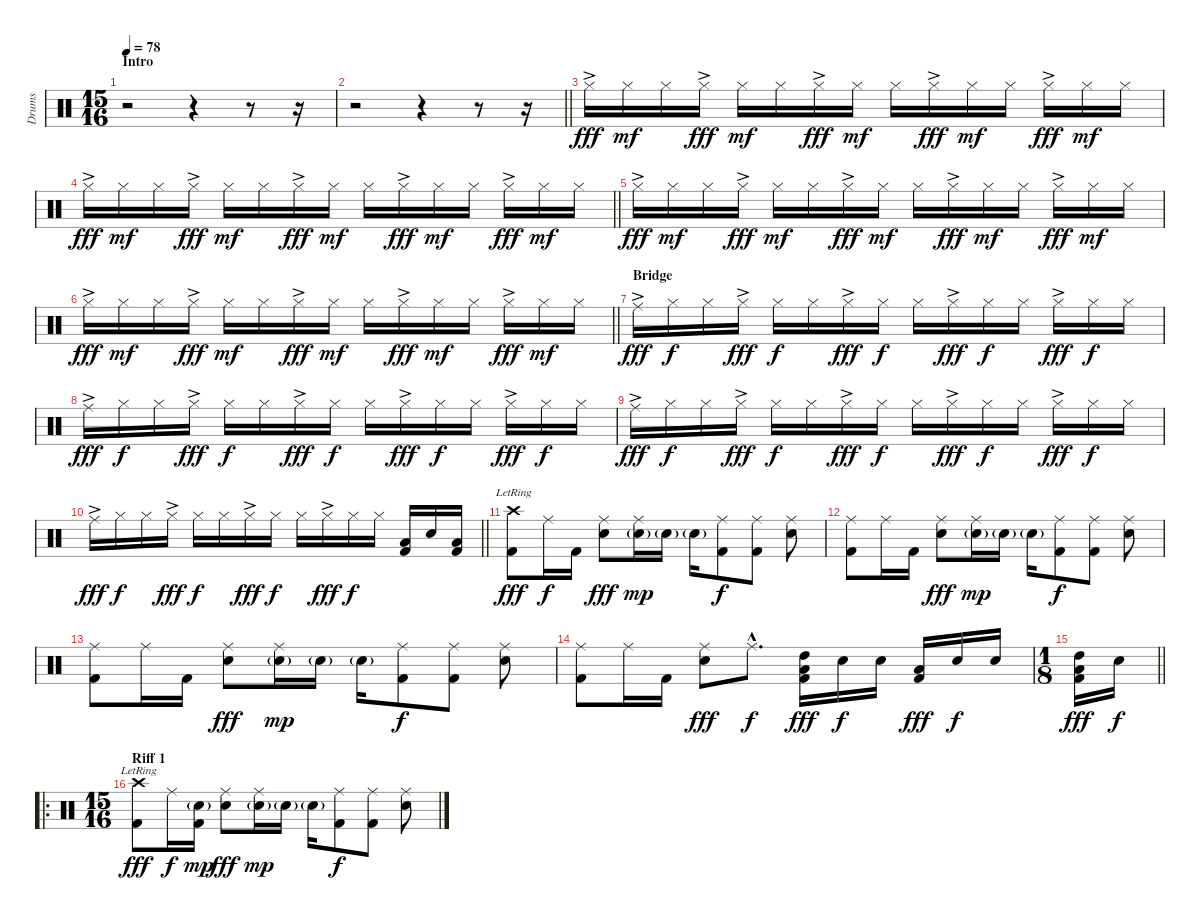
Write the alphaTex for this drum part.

\track ("Drums" "Drums") {instrument percussion}
\staff {score}
\articulation defaults
\ts (15 16)
\section ("" "Intro")
\tempo 78
\clef neutral
\ks c
r.2{dy fff} r.4 r.8 r.16 |
\barLineRight lightlight
r.2 r.4 r.8 r.16 |
"Hi-Hat (closed)"{ac}.16 "Hi-Hat (closed)".16{dy mf} "Hi-Hat (closed)".16 "Hi-Hat (closed)"{ac}.16{dy fff} "Hi-Hat (closed)".16{dy mf} "Hi-Hat (closed)".16 "Hi-Hat (closed)"{ac}.16{dy fff} "Hi-Hat (closed)".16{dy mf} "Hi-Hat (closed)".16 "Hi-Hat (closed)"{ac}.16{dy fff} "Hi-Hat (closed)".16{dy mf} "Hi-Hat (closed)".16 "Hi-Hat (closed)"{ac}.16{dy fff} "Hi-Hat (closed)".16{dy mf} "Hi-Hat (closed)".16 |
\barLineRight lightlight "Hi-Hat (closed)"{ac}.16{dy fff} "Hi-Hat (closed)".16{dy mf} "Hi-Hat (closed)".16 "Hi-Hat (closed)"{ac}.16{dy fff} "Hi-Hat (closed)".16{dy mf} "Hi-Hat (closed)".16 "Hi-Hat (closed)"{ac}.16{dy fff} "Hi-Hat (closed)".16{dy mf} "Hi-Hat (closed)".16 "Hi-Hat (closed)"{ac}.16{dy fff} "Hi-Hat (closed)".16{dy mf} "Hi-Hat (closed)".16 "Hi-Hat (closed)"{ac}.16{dy fff} "Hi-Hat (closed)".16{dy mf} "Hi-Hat (closed)".16
|
"Hi-Hat (closed)"{ac}.16{dy fff} "Hi-Hat (closed)".16{dy mf} "Hi-Hat (closed)".16 "Hi-Hat (closed)"{ac}.16{dy fff} "Hi-Hat (closed)".16{dy mf} "Hi-Hat (closed)".16 "Hi-Hat (closed)"{ac}.16{dy fff} "Hi-Hat (closed)".16{dy mf} "Hi-Hat (closed)".16 "Hi-Hat (closed)"{ac}.16{dy fff} "Hi-Hat (closed)".16{dy mf} "Hi-Hat (closed)".16 "Hi-Hat (closed)"{ac}.16{dy fff} "Hi-Hat (closed)".16{dy mf} "Hi-Hat (closed)".16 |
\barLineRight lightlight "Hi-Hat (closed)"{ac}.16{dy fff} "Hi-Hat (closed)".16{dy mf} "Hi-Hat (closed)".16 "Hi-Hat (closed)"{ac}.16{dy fff} "Hi-Hat (closed)".16{dy mf} "Hi-Hat (closed)".16 "Hi-Hat (closed)"{ac}.16{dy fff} "Hi-Hat (closed)".16{dy mf} "Hi-Hat (closed)".16 "Hi-Hat (closed)"{ac}.16{dy fff} "Hi-Hat (closed)".16{dy mf} "Hi-Hat (closed)".16 "Hi-Hat (closed)"{ac}.16{dy fff} "Hi-Hat (closed)".16{dy mf} "Hi-Hat (closed)".16
|
\section ("" "Bridge")
"Ride (middle)"{ac}.16{dy fff} "Hi-Hat (closed)".16{dy f} "Hi-Hat (closed)".16 "Hi-Hat (closed)"{ac}.16{dy fff} "Hi-Hat (closed)".16{dy f} "Hi-Hat (closed)".16 "Hi-Hat (closed)"{ac}.16{dy fff} "Hi-Hat (closed)".16{dy f} "Hi-Hat (closed)".16 "Hi-Hat (closed)"{ac}.16{dy fff} "Hi-Hat (closed)".16{dy f} "Hi-Hat (closed)".16 "Hi-Hat (closed)"{ac}.16{dy fff} "Hi-Hat (closed)".16{dy f} "Hi-Hat (closed)".16 |
"Ride (middle)"{ac}.16{dy fff} "Hi-Hat (closed)".16{dy f} "Hi-Hat (closed)".16 "Hi-Hat (closed)"{ac}.16{dy fff} "Hi-Hat (closed)".16{dy f} "Hi-Hat (closed)".16 "Hi-Hat (closed)"{ac}.16{dy fff} "Hi-Hat (closed)".16{dy f} "Hi-Hat (closed)".16 "Hi-Hat (closed)"{ac}.16{dy fff} "Hi-Hat (closed)".16{dy f} "Hi-Hat (closed)".16 "Hi-Hat (closed)"{ac}.16{dy fff} "Hi-Hat (closed)".16{dy f} "Hi-Hat (closed)".16 |
"Ride (middle)"{ac}.16{dy fff} "Hi-Hat (closed)".16{dy f} "Hi-Hat (closed)".16 "Hi-Hat (closed)"{ac}.16{dy fff} "Hi-Hat (closed)".16{dy f} "Hi-Hat (closed)".16 "Hi-Hat (closed)"{ac}.16{dy fff} "Hi-Hat (closed)".16{dy f} "Hi-Hat (closed)".16 "Hi-Hat (closed)"{ac}.16{dy fff} "Hi-Hat (closed)".16{dy f} "Hi-Hat (closed)".16 "Hi-Hat (closed)"{ac}.16{dy fff} "Hi-Hat (closed)".16{dy f} "Hi-Hat (closed)".16 |
\barLineRight lightlight "Ride (middle)"{ac}.16{dy fff} "Hi-Hat (closed)".16{dy f} "Hi-Hat (closed)".16 "Hi-Hat (closed)"{ac}.16{dy fff} "Hi-Hat (closed)".16{dy f} "Hi-Hat (closed)".16 "Hi-Hat (closed)"{ac}.16{dy fff} "Hi-Hat (closed)".16{dy f} "Hi-Hat (closed)".16 "Hi-Hat (closed)"{ac}.16{dy fff} "Hi-Hat (closed)".16{dy f} "Hi-Hat (closed)".16
("Low Tom (hit)" "Kick (hit) 2").16{volume 16} "Snare (hit) 2".16 ("Low Tom (hit)" "Kick (hit) 2").16 |
("Crash high (hit)"{lr} "Kick (hit) 2").8{dy fff} "Ride (middle)".16{dy f} "Kick (hit) 2".16 ("Ride (middle)" "Snare (hit) 2").8{dy fff} ("Ride (middle)" "Snare (hit) 2"{g}).16{dy mp} "Snare (hit) 2"{g}.16 "Snare (hit) 2"{g}.16 ("Ride (middle)" "Kick (hit) 2").8{dy f} ("Ride (middle)" "Kick (hit) 2").8 ("Ride (middle)" "Snare (hit) 2").8 |
("Ride (middle)" "Kick (hit) 2").8 "Ride (middle)".16 "Kick (hit) 2".16 ("Ride (middle)" "Snare (hit) 2").8{dy fff} ("Ride (middle)" "Snare (hit) 2"{g}).16{dy mp} "Snare (hit) 2"{g}.16 "Snare (hit) 2"{g}.16 ("Ride (middle)" "Kick (hit) 2").8{dy f} ("Ride (middle)" "Kick (hit) 2").8 ("Ride (middle)" "Snare (hit) 2").8 |
("Ride (middle)" "Kick (hit) 2").8 "Ride (middle)".16 "Kick (hit) 2".16 ("Ride (middle)" "Snare (hit) 2").8{dy fff} ("Ride (middle)" "Snare (hit) 2"{g}).16{dy mp} "Snare (hit) 2"{g}.16 "Snare (hit) 2"{g}.16 ("Ride (middle)" "Kick (hit) 2").8{dy f} ("Ride (middle)" "Kick (hit) 2").8 ("Ride (middle)" "Snare (hit) 2").8 |
("Ride (middle)" "Kick (hit) 2").8 "Ride (middle)".16 "Kick (hit) 2".16 ("Ride (middle)" "Snare (hit) 2").8{dy fff} "Ride (middle)"{hac}.8{d dy f} ("High Tom (hit)" "Low Tom (hit)" "Kick (hit) 2").16{dy fff} "Snare (hit) 2".16{dy f} "Snare (hit) 2".16 ("Low Tom (hit)" "Kick (hit) 2").16{dy fff} "Snare (hit) 2".16{dy f} "Snare (hit) 2".16 |
\ts (1 8)
\barLineRight lightlight
("High Tom (hit)" "Low Tom (hit)" "Kick (hit) 2").16{dy fff} "Snare (hit) 2".16{dy f} |
\ro
\ts (15 16)
\section ("" "Riff 1")
("Crash high (hit)"{lr} "Kick (hit) 2").8{dy fff} "Ride (middle)".16{dy f} ("Snare (hit) 2"{g} "Kick (hit) 2").16{dy mp} ("Ride (middle)" "Snare (hit) 2").8{dy fff} ("Ride (middle)" "Snare (hit) 2"{g}).16{dy mp} "Snare (hit) 2"{g}.16 "Snare (hit) 2"{g}.16 ("Ride (middle)" "Kick (hit) 2").8{dy f} ("Ride (middle)" "Kick (hit) 2").8 ("Ride (middle)" "Snare (hit) 2").8
